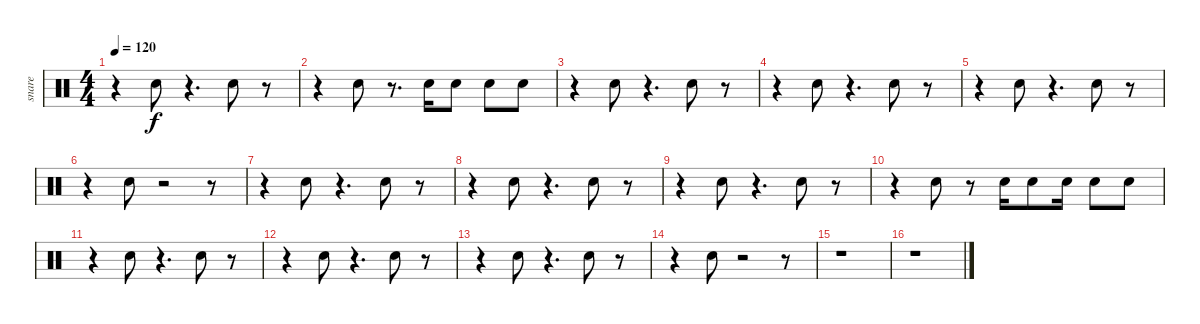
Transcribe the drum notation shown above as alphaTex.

\track ("snare" "snare") {instrument percussion}
\staff {score}
\articulation defaults
\ts (4 4)
\tempo 120
\clef neutral
\ks c
r.4{dy f} "Electric Snare (hit)".8 r.4{d} "Electric Snare (hit)".8 r.8 |
r.4 "Electric Snare (hit)".8 r.8{d} "Electric Snare (hit)".16 "Electric Snare (hit)".8 "Electric Snare (hit)".8 "Electric Snare (hit)".8 |
r.4 "Electric Snare (hit)".8 r.4{d} "Electric Snare (hit)".8 r.8 |
r.4 "Electric Snare (hit)".8 r.4{d} "Electric Snare (hit)".8 r.8 |
r.4 "Electric Snare (hit)".8 r.4{d} "Electric Snare (hit)".8 r.8 |
r.4 "Electric Snare (hit)".8 r.2 r.8 |
r.4 "Electric Snare (hit)".8 r.4{d} "Electric Snare (hit)".8 r.8 |
r.4 "Electric Snare (hit)".8 r.4{d} "Electric Snare (hit)".8 r.8 |
r.4 "Electric Snare (hit)".8 r.4{d} "Electric Snare (hit)".8 r.8 |
r.4 "Electric Snare (hit)".8 r.8 "Electric Snare (hit)".16 "Electric Snare (hit)".8 "Electric Snare (hit)".16 "Electric Snare (hit)".8 "Electric Snare (hit)".8 |
r.4 "Electric Snare (hit)".8 r.4{d} "Electric Snare (hit)".8 r.8 |
r.4 "Electric Snare (hit)".8 r.4{d} "Electric Snare (hit)".8 r.8 |
r.4 "Electric Snare (hit)".8 r.4{d} "Electric Snare (hit)".8 r.8 |
r.4 "Electric Snare (hit)".8 r.2 r.8 |
r.1 |
r.1
